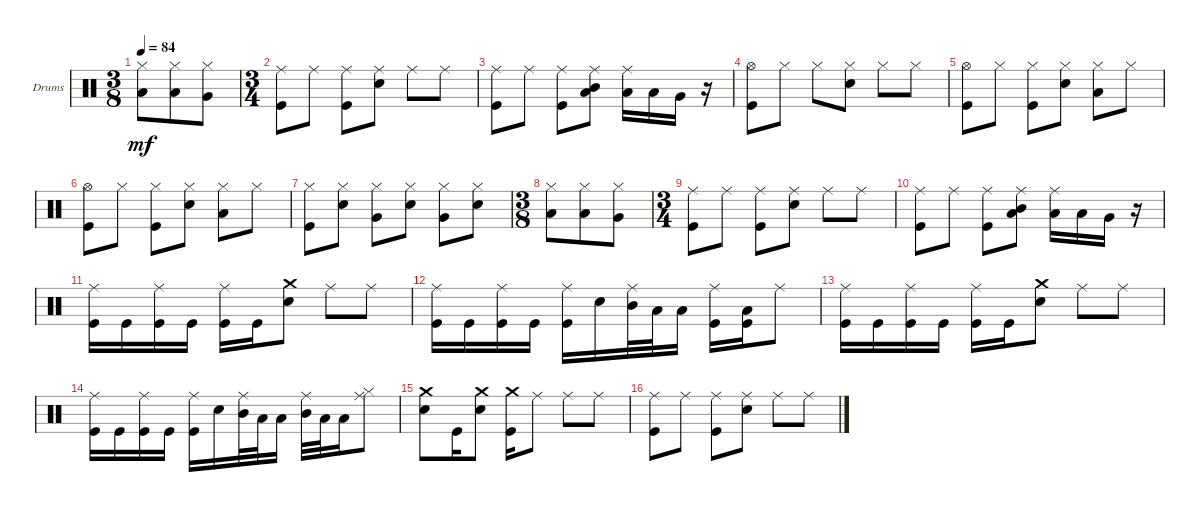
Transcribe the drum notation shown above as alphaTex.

\defaultSystemsLayout 4
\bracketExtendMode groupsimilarinstruments
\firstSystemTrackNameOrientation horizontal
\otherSystemsTrackNameOrientation horizontal
\track ("Drumkit" "Drums") {instrument percussion}
\staff {score}
\articulation defaults
\ts (3 8)
\tempo 84
\clef neutral
\ks c
("Low Tom (hit)" "Hi-Hat (closed)").8{dy mf} ("Low Tom (hit)" "Hi-Hat (closed)").8 ("Very Low Tom (hit)" "Hi-Hat (closed)").8 |
\ts (3 4)
("Kick (hit)" "Ride (middle)").8 "Ride (middle)".8 ("Kick (hit)" "Ride (middle)").8 ("Snare (hit) 2" "Ride (middle)").8 "Ride (middle)".8 "Ride (middle)".8 |
("Kick (hit)" "Ride (middle)").8 "Ride (middle)".8 ("Kick (hit)" "Ride (middle)").8 ("Low Tom (hit)" "Mid Tom (hit)" "Ride (middle)").8 ("Low Tom (hit)" "Ride (middle)").16 "Low Tom (hit)".16 "Very Low Tom (hit)".16 r.16 |
("Kick (hit)" "Hi-Hat (open)").8 "Hi-Hat (closed)".8 "Hi-Hat (closed)".8 ("Snare (hit) 2" "Hi-Hat (closed)").8 "Hi-Hat (closed)".8 "Hi-Hat (closed)".8 |
("Kick (hit)" "Hi-Hat (open)").8 "Hi-Hat (closed)".8 ("Hi-Hat (closed)" "Kick (hit)").8 ("Snare (hit) 2" "Hi-Hat (closed)").8 ("Low Tom (hit)" "Hi-Hat (closed)").8 "Hi-Hat (closed)".8 |
("Kick (hit)" "Hi-Hat (open)").8 "Hi-Hat (closed)".8 ("Kick (hit)" "Hi-Hat (closed)").8 ("Snare (hit) 2" "Hi-Hat (closed)").8 ("Hi-Hat (closed)" "Low Tom (hit)").8 "Hi-Hat (closed)".8 |
("Kick (hit)" "Hi-Hat (closed)").8 ("Snare (hit) 2" "Hi-Hat (closed)").8 ("Very Low Tom (hit)" "Hi-Hat (closed)").8 ("Snare (hit) 2" "Hi-Hat (closed)").8 ("Very Low Tom (hit)" "Hi-Hat (closed)").8 ("Hi-Hat (closed)" "Snare (hit) 2").8 |
\ts (3 8)
("Low Tom (hit)" "Hi-Hat (closed)").8 ("Low Tom (hit)" "Hi-Hat (closed)").8 ("Very Low Tom (hit)" "Hi-Hat (closed)").8 |
\ts (3 4)
("Kick (hit)" "Ride (middle)").8 "Ride (middle)".8 ("Kick (hit)" "Ride (middle)").8 ("Snare (hit) 2" "Ride (middle)").8 "Ride (middle)".8 "Ride (middle)".8 |
("Kick (hit)" "Ride (middle)").8 "Ride (middle)".8 ("Kick (hit)" "Ride (middle)").8 ("Low Tom (hit)" "Mid Tom (hit)" "Ride (middle)").8 ("Low Tom (hit)" "Ride (middle)").16 "Low Tom (hit)".16 "Very Low Tom (hit)".16 r.16 |
("Kick (hit)" "Ride (middle)").16 "Kick (hit)".16 ("Kick (hit)" "Ride (middle)").16 "Kick (hit)".16 ("Kick (hit)" "Ride (middle)").16 "Kick (hit)".16 ("Snare (hit) 2" "Crash medium (hit)").8 "Ride (middle)".8 "Ride (middle)".8 |
("Kick (hit)" "Ride (middle)").16 "Kick (hit)".16 ("Kick (hit)" "Ride (middle)").16 "Kick (hit)".16 ("Kick (hit)" "Ride (middle)").16 "Snare (hit) 2".16 ("Ride (middle)" "Mid Tom (hit)").32 "Low Tom (hit)".32 "Low Tom (hit)".16 ("Kick (hit)" "Ride (middle)").16 ("Low Tom (hit)" "Kick (hit)").16 "Ride (middle)".8 |
("Kick (hit)" "Ride (middle)").16 "Kick (hit)".16 ("Kick (hit)" "Ride (middle)").16 "Kick (hit)".16 ("Kick (hit)" "Ride (middle)").16 "Kick (hit)".16 ("Snare (hit) 2" "Crash medium (hit)").8 "Ride (middle)".8 "Ride (middle)".8 |
("Kick (hit)" "Ride (middle)").16 "Kick (hit)".16 ("Kick (hit)" "Ride (middle)").16 "Kick (hit)".16 ("Kick (hit)" "Ride (middle)").16 "Snare (hit) 2".16 ("Ride (middle)" "Mid Tom (hit)").32 "Low Tom (hit)".32 "Low Tom (hit)".16 ("Ride (middle)" "Mid Tom (hit)").32 "Low Tom (hit)".32 "Low Tom (hit)".16 ("Hi-Hat (closed)" "Ride (middle)").8 |
("Snare (hit) 2" "Crash medium (hit)").8 "Kick (hit)".16 ("Snare (hit) 2" "Crash medium (hit)").8 ("Crash medium (hit)" "Kick (hit)").16 "Ride (middle)".8 "Ride (middle)".8 "Ride (middle)".8 |
("Kick (hit)" "Ride (middle)").8 "Ride (middle)".8 ("Ride (middle)" "Kick (hit)").8 ("Snare (hit) 2" "Ride (middle)").8 "Ride (middle)".8 "Ride (middle)".8
